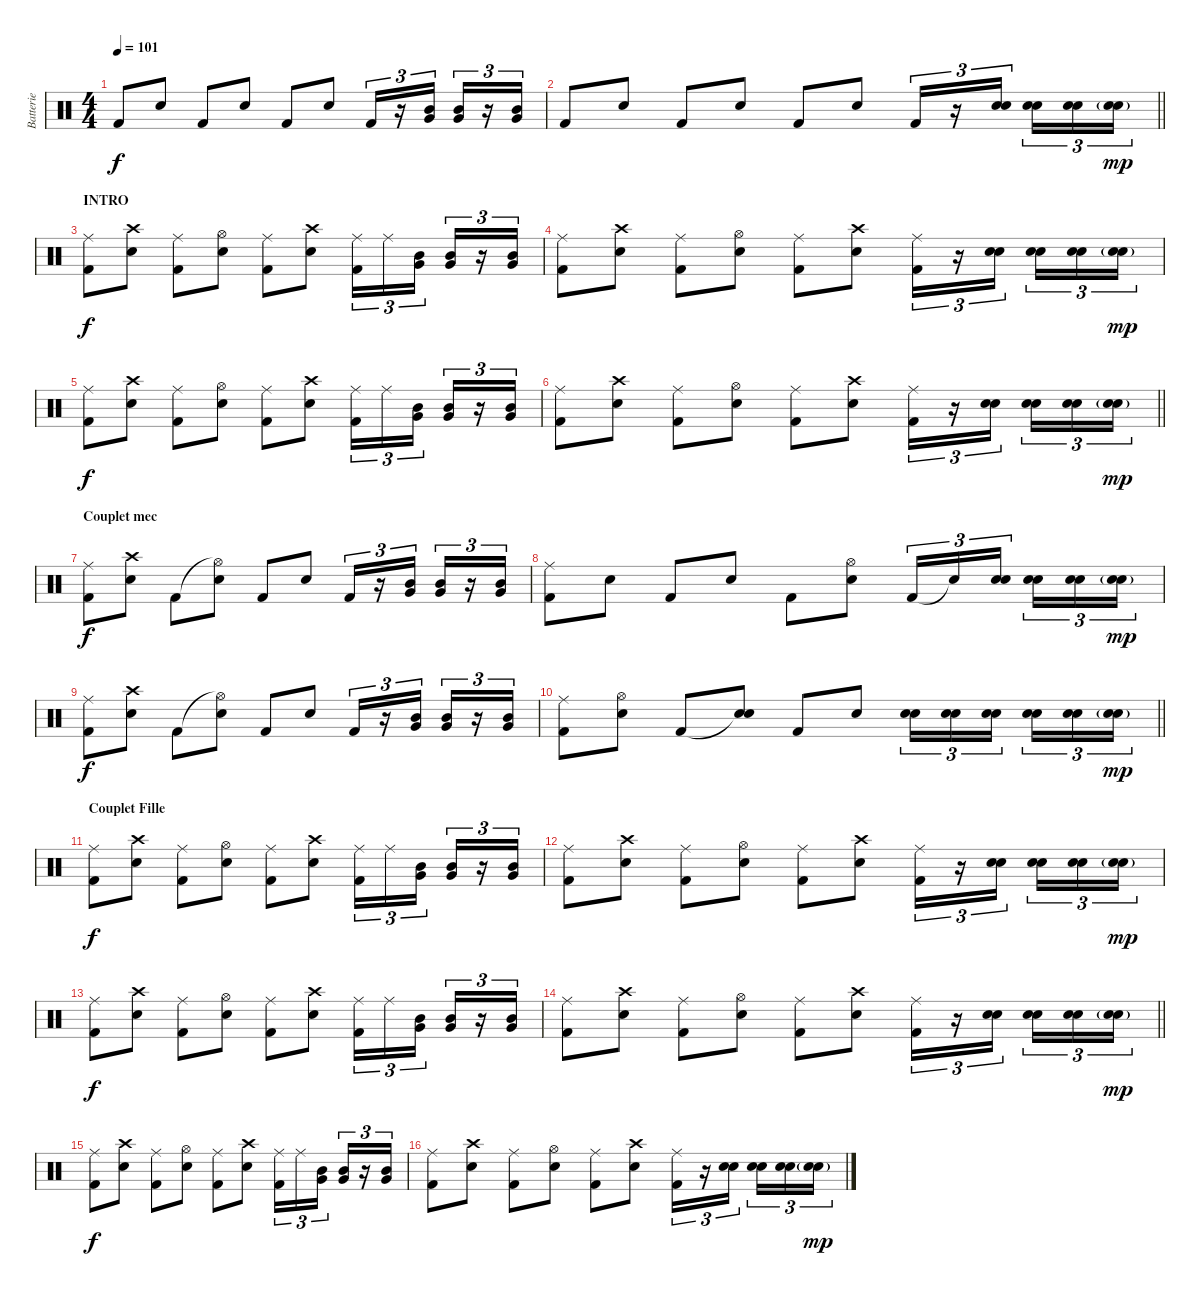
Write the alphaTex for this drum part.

\track ("Batterie" "Batterie") {instrument percussion}
\staff {score}
\articulation defaults
\ts (4 4)
\tempo 101
\clef neutral
\ks c "Kick (hit) 2".8{dy f} "Electric Snare (hit)".8 "Kick (hit) 2".8 "Electric Snare (hit)".8 "Kick (hit) 2".8 "Electric Snare (hit)".8 "Kick (hit) 2".16{tu (3 2)}
r.16{tu (3 2)} ("Very Low Tom (hit)" "Mid Tom (hit)").16{tu (3 2)} ("Very Low Tom (hit)" "Mid Tom (hit)").16{tu (3 2)} r.16{tu (3 2)} ("Very Low Tom (hit)" "Mid Tom (hit)").16{tu (3 2)} |
\barLineRight lightlight "Kick (hit) 2".8 "Electric Snare (hit)".8 "Kick (hit) 2".8 "Electric Snare (hit)".8 "Kick (hit) 2".8 "Electric Snare (hit)".8 "Kick (hit) 2".16{tu (3 2)}
r.16{tu (3 2)} ("Snare (hit) 2" "Electric Snare (hit)").16{tu (3 2) beam splitsecondary} ("Snare (hit) 2" "Electric Snare (hit)").16{tu (3 2)} ("Snare (hit) 2" "Electric Snare (hit)").16{tu (3 2)} ("Snare (hit) 2"{g} "Electric Snare (hit)"{g}).16{tu (3 2) dy mp} |
\section ("" "INTRO")
("Ride (middle)" "Kick (hit) 2").8{dy f} ("Crash high (hit)" "Electric Snare (hit)").8 ("Ride (middle)" "Kick (hit) 2").8 ("Hi-Hat (open)" "Electric Snare (hit)").8 ("Ride (middle)" "Kick (hit) 2").8 ("Crash high (hit)" "Electric Snare (hit)").8 ("Ride (middle)" "Kick (hit) 2").16{tu (3 2)} "Ride (middle)".16{tu (3 2)} ("Very Low Tom (hit)" "Mid Tom (hit)").16{tu (3 2) beam splitsecondary} ("Very Low Tom (hit)" "Mid Tom (hit)").16{tu (3 2)} r.16{tu (3 2)} ("Very Low Tom (hit)" "Mid Tom (hit)").16{tu (3 2)} |
("Ride (middle)" "Kick (hit) 2").8 ("Crash high (hit)" "Electric Snare (hit)").8 ("Ride (middle)" "Kick (hit) 2").8 ("Hi-Hat (open)" "Electric Snare (hit)").8 ("Ride (middle)" "Kick (hit) 2").8 ("Crash high (hit)" "Electric Snare (hit)").8 ("Ride (middle)" "Kick (hit) 2").16{tu (3 2)} r.16{tu (3 2)} ("Snare (hit) 2" "Electric Snare (hit)").16{tu (3 2) beam splitsecondary} ("Snare (hit) 2" "Electric Snare (hit)").16{tu (3 2)} ("Snare (hit) 2" "Electric Snare (hit)").16{tu (3 2)} ("Snare (hit) 2"{g} "Electric Snare (hit)"{g}).16{tu (3 2) dy mp} |
("Ride (middle)" "Kick (hit) 2").8{dy f} ("Crash high (hit)" "Electric Snare (hit)").8 ("Ride (middle)" "Kick (hit) 2").8 ("Hi-Hat (open)" "Electric Snare (hit)").8 ("Ride (middle)" "Kick (hit) 2").8 ("Crash high (hit)" "Electric Snare (hit)").8 ("Ride (middle)" "Kick (hit) 2").16{tu (3 2)} "Ride (middle)".16{tu (3 2)} ("Very Low Tom (hit)" "Mid Tom (hit)").16{tu (3 2) beam splitsecondary} ("Very Low Tom (hit)" "Mid Tom (hit)").16{tu (3 2)} r.16{tu (3 2)} ("Very Low Tom (hit)" "Mid Tom (hit)").16{tu (3 2)} |
\barLineRight lightlight
("Ride (middle)" "Kick (hit) 2").8 ("Crash high (hit)" "Electric Snare (hit)").8 ("Ride (middle)" "Kick (hit) 2").8 ("Hi-Hat (open)" "Electric Snare (hit)").8 ("Ride (middle)" "Kick (hit) 2").8 ("Crash high (hit)" "Electric Snare (hit)").8 ("Ride (middle)" "Kick (hit) 2").16{tu (3 2)} r.16{tu (3 2)} ("Snare (hit) 2" "Electric Snare (hit)").16{tu (3 2) beam splitsecondary} ("Snare (hit) 2" "Electric Snare (hit)").16{tu (3 2)} ("Snare (hit) 2" "Electric Snare (hit)").16{tu (3 2)} ("Snare (hit) 2"{g} "Electric Snare (hit)"{g}).16{tu (3 2) dy mp} |
\section ("" "Couplet mec")
("Ride (middle)" "Kick (hit) 2").8{dy f} ("Crash high (hit)" "Electric Snare (hit)").8 "Kick (hit) 2".8 ("Hi-Hat (open)"{t} "Electric Snare (hit)").8 "Kick (hit) 2".8 "Electric Snare (hit)".8 "Kick (hit) 2".16{tu (3 2)} r.16{tu (3 2)} ("Very Low Tom (hit)" "Mid Tom (hit)").16{tu (3 2)} ("Very Low Tom (hit)" "Mid Tom (hit)").16{tu (3 2)} r.16{tu (3 2)} ("Very Low Tom (hit)" "Mid Tom (hit)").16{tu (3 2)} |
("Ride (middle)" "Kick (hit) 2").8 "Electric Snare (hit)".8 "Kick (hit) 2".8 "Electric Snare (hit)".8 "Kick (hit) 2".8 ("Hi-Hat (open)" "Electric Snare (hit)").8 "Kick (hit) 2".16{tu (3 2)} "Snare (hit)"{t}.16{tu (3 2)} ("Snare (hit) 2" "Electric Snare (hit)").16{tu (3 2) beam splitsecondary} ("Snare (hit) 2" "Electric Snare (hit)").16{tu (3 2)} ("Snare (hit) 2" "Electric Snare (hit)").16{tu (3 2)} ("Snare (hit) 2"{g} "Electric Snare (hit)"{g}).16{tu (3 2) dy mp} |
("Ride (middle)" "Kick (hit) 2").8{dy f} ("Crash high (hit)" "Electric Snare (hit)").8 "Kick (hit) 2".8 ("Hi-Hat (open)"{t} "Electric Snare (hit)").8 "Kick (hit) 2".8 "Electric Snare (hit)".8 "Kick (hit) 2".16{tu (3 2)} r.16{tu (3 2)} ("Very Low Tom (hit)" "Mid Tom (hit)").16{tu (3 2)} ("Very Low Tom (hit)" "Mid Tom (hit)").16{tu (3 2)} r.16{tu (3 2)} ("Very Low Tom (hit)" "Mid Tom (hit)").16{tu (3 2)} |
\barLineRight lightlight
("Ride (middle)" "Kick (hit) 2").8 ("Hi-Hat (open)" "Electric Snare (hit)").8 "Kick (hit) 2".8 ("Snare (hit)"{t} "Electric Snare (hit)").8 "Kick (hit) 2".8 "Electric Snare (hit)".8 ("Snare (hit) 2" "Electric Snare (hit)").16{tu (3 2)} ("Snare (hit) 2" "Electric Snare (hit)").16{tu (3 2)} ("Snare (hit) 2" "Electric Snare (hit)").16{tu (3 2) beam splitsecondary} ("Snare (hit) 2" "Electric Snare (hit)").16{tu (3 2)} ("Snare (hit) 2" "Electric Snare (hit)").16{tu (3 2)} ("Snare (hit) 2"{g} "Electric Snare (hit)"{g}).16{tu (3 2) dy mp} |
\section ("" "Couplet Fille")
("Ride (middle)" "Kick (hit) 2").8{dy f} ("Crash high (hit)" "Electric Snare (hit)").8 ("Ride (middle)" "Kick (hit) 2").8 ("Hi-Hat (open)" "Electric Snare (hit)").8 ("Ride (middle)" "Kick (hit) 2").8 ("Crash high (hit)" "Electric Snare (hit)").8 ("Ride (middle)" "Kick (hit) 2").16{tu (3 2)} "Ride (middle)".16{tu (3 2)} ("Very Low Tom (hit)" "Mid Tom (hit)").16{tu (3 2) beam splitsecondary} ("Very Low Tom (hit)" "Mid Tom (hit)").16{tu (3 2)} r.16{tu (3 2)} ("Very Low Tom (hit)" "Mid Tom (hit)").16{tu (3 2)} |
("Ride (middle)" "Kick (hit) 2").8 ("Crash high (hit)" "Electric Snare (hit)").8 ("Ride (middle)" "Kick (hit) 2").8 ("Hi-Hat (open)" "Electric Snare (hit)").8 ("Ride (middle)" "Kick (hit) 2").8 ("Crash high (hit)" "Electric Snare (hit)").8 ("Ride (middle)" "Kick (hit) 2").16{tu (3 2)} r.16{tu (3 2)} ("Snare (hit) 2" "Electric Snare (hit)").16{tu (3 2) beam splitsecondary} ("Snare (hit) 2" "Electric Snare (hit)").16{tu (3 2)} ("Snare (hit) 2" "Electric Snare (hit)").16{tu (3 2)} ("Snare (hit) 2"{g} "Electric Snare (hit)"{g}).16{tu (3 2) dy mp} |
("Ride (middle)" "Kick (hit) 2").8{dy f} ("Crash high (hit)" "Electric Snare (hit)").8 ("Ride (middle)" "Kick (hit) 2").8 ("Hi-Hat (open)" "Electric Snare (hit)").8 ("Ride (middle)" "Kick (hit) 2").8 ("Crash high (hit)" "Electric Snare (hit)").8 ("Ride (middle)" "Kick (hit) 2").16{tu (3 2)} "Ride (middle)".16{tu (3 2)} ("Very Low Tom (hit)" "Mid Tom (hit)").16{tu (3 2) beam splitsecondary} ("Very Low Tom (hit)" "Mid Tom (hit)").16{tu (3 2)} r.16{tu (3 2)} ("Very Low Tom (hit)" "Mid Tom (hit)").16{tu (3 2)} |
\barLineRight lightlight
("Ride (middle)" "Kick (hit) 2").8 ("Crash high (hit)" "Electric Snare (hit)").8 ("Ride (middle)" "Kick (hit) 2").8 ("Hi-Hat (open)" "Electric Snare (hit)").8 ("Ride (middle)" "Kick (hit) 2").8 ("Crash high (hit)" "Electric Snare (hit)").8 ("Ride (middle)" "Kick (hit) 2").16{tu (3 2)} r.16{tu (3 2)} ("Snare (hit) 2" "Electric Snare (hit)").16{tu (3 2) beam splitsecondary} ("Snare (hit) 2" "Electric Snare (hit)").16{tu (3 2)} ("Snare (hit) 2" "Electric Snare (hit)").16{tu (3 2)} ("Snare (hit) 2"{g} "Electric Snare (hit)"{g}).16{tu (3 2) dy mp} |
("Ride (middle)" "Kick (hit) 2").8{dy f} ("Crash high (hit)" "Electric Snare (hit)").8 ("Ride (middle)" "Kick (hit) 2").8 ("Hi-Hat (open)" "Electric Snare (hit)").8 ("Ride (middle)" "Kick (hit) 2").8 ("Crash high (hit)" "Electric Snare (hit)").8 ("Ride (middle)" "Kick (hit) 2").16{tu (3 2)} "Ride (middle)".16{tu (3 2)} ("Very Low Tom (hit)" "Mid Tom (hit)").16{tu (3 2) beam splitsecondary} ("Very Low Tom (hit)" "Mid Tom (hit)").16{tu (3 2)} r.16{tu (3 2)} ("Very Low Tom (hit)" "Mid Tom (hit)").16{tu (3 2)} |
("Ride (middle)" "Kick (hit) 2").8 ("Crash high (hit)" "Electric Snare (hit)").8 ("Ride (middle)" "Kick (hit) 2").8 ("Hi-Hat (open)" "Electric Snare (hit)").8 ("Ride (middle)" "Kick (hit) 2").8 ("Crash high (hit)" "Electric Snare (hit)").8 ("Ride (middle)" "Kick (hit) 2").16{tu (3 2)} r.16{tu (3 2)} ("Snare (hit) 2" "Electric Snare (hit)").16{tu (3 2) beam splitsecondary} ("Snare (hit) 2" "Electric Snare (hit)").16{tu (3 2)} ("Snare (hit) 2" "Electric Snare (hit)").16{tu (3 2)} ("Snare (hit) 2"{g} "Electric Snare (hit)"{g}).16{tu (3 2) dy mp}
